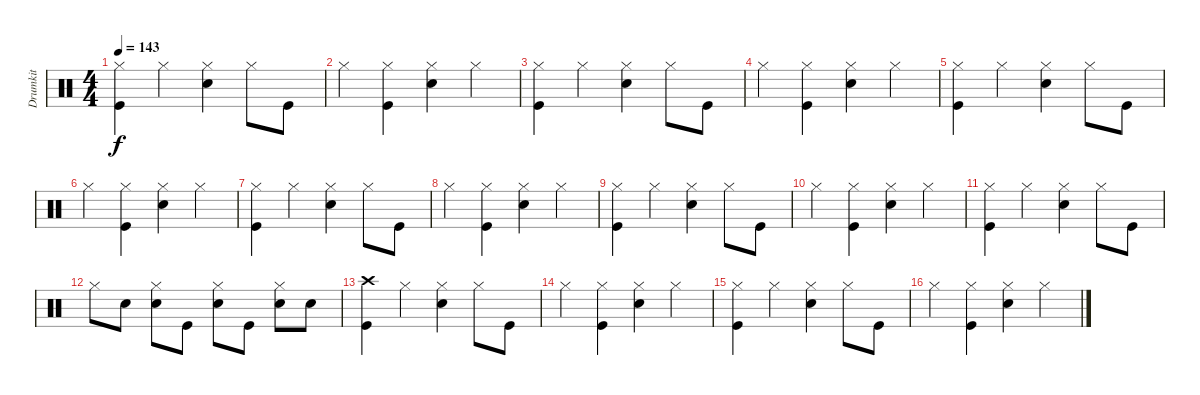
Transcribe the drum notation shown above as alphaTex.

\track ("Drumkit" "Drumkit") {instrument percussion}
\staff {score}
\articulation defaults
\ts (4 4)
\tempo 143
\clef neutral
\ks c
("Kick (hit)" "Hi-Hat (closed)").4{dy f} "Hi-Hat (closed)".4 ("Hi-Hat (closed)" "Snare (hit) 2").4 "Hi-Hat (closed)".8 "Kick (hit)".8 |
"Hi-Hat (closed)".4 ("Hi-Hat (closed)" "Kick (hit)").4 ("Hi-Hat (closed)" "Snare (hit) 2").4 "Hi-Hat (closed)".4 |
("Kick (hit)" "Hi-Hat (closed)").4 "Hi-Hat (closed)".4 ("Hi-Hat (closed)" "Snare (hit) 2").4 "Hi-Hat (closed)".8 "Kick (hit)".8 |
"Hi-Hat (closed)".4 ("Hi-Hat (closed)" "Kick (hit)").4 ("Hi-Hat (closed)" "Snare (hit) 2").4 "Hi-Hat (closed)".4 |
("Kick (hit)" "Hi-Hat (closed)").4 "Hi-Hat (closed)".4 ("Hi-Hat (closed)" "Snare (hit) 2").4 "Hi-Hat (closed)".8 "Kick (hit)".8 |
"Hi-Hat (closed)".4 ("Hi-Hat (closed)" "Kick (hit)").4 ("Hi-Hat (closed)" "Snare (hit) 2").4 "Hi-Hat (closed)".4 |
("Kick (hit)" "Hi-Hat (closed)").4 "Hi-Hat (closed)".4 ("Hi-Hat (closed)" "Snare (hit) 2").4 "Hi-Hat (closed)".8 "Kick (hit)".8 |
"Hi-Hat (closed)".4 ("Hi-Hat (closed)" "Kick (hit)").4 ("Hi-Hat (closed)" "Snare (hit) 2").4 "Hi-Hat (closed)".4 |
("Kick (hit)" "Hi-Hat (closed)").4 "Hi-Hat (closed)".4 ("Hi-Hat (closed)" "Snare (hit) 2").4 "Hi-Hat (closed)".8 "Kick (hit)".8 |
"Hi-Hat (closed)".4 ("Hi-Hat (closed)" "Kick (hit)").4 ("Hi-Hat (closed)" "Snare (hit) 2").4 "Hi-Hat (closed)".4 |
("Kick (hit)" "Hi-Hat (closed)").4 "Hi-Hat (closed)".4 ("Hi-Hat (closed)" "Snare (hit) 2").4 "Hi-Hat (closed)".8 "Kick (hit)".8 |
"Hi-Hat (closed)".8 "Snare (hit) 2".8 ("Hi-Hat (closed)" "Snare (hit) 2").8 "Kick (hit)".8 ("Hi-Hat (closed)" "Snare (hit) 2").8 "Kick (hit)".8 ("Hi-Hat (closed)" "Snare (hit) 2").8 "Snare (hit) 2".8 |
("Crash high (hit)" "Kick (hit)").4 "Hi-Hat (closed)".4 ("Hi-Hat (closed)" "Snare (hit) 2").4 "Hi-Hat (closed)".8 "Kick (hit)".8 |
"Hi-Hat (closed)".4 ("Hi-Hat (closed)" "Kick (hit)").4 ("Hi-Hat (closed)" "Snare (hit) 2").4 "Hi-Hat (closed)".4 |
("Kick (hit)" "Hi-Hat (closed)").4 "Hi-Hat (closed)".4 ("Hi-Hat (closed)" "Snare (hit) 2").4 "Hi-Hat (closed)".8 "Kick (hit)".8 |
"Hi-Hat (closed)".4 ("Hi-Hat (closed)" "Kick (hit)").4 ("Hi-Hat (closed)" "Snare (hit) 2").4 "Hi-Hat (closed)".4
